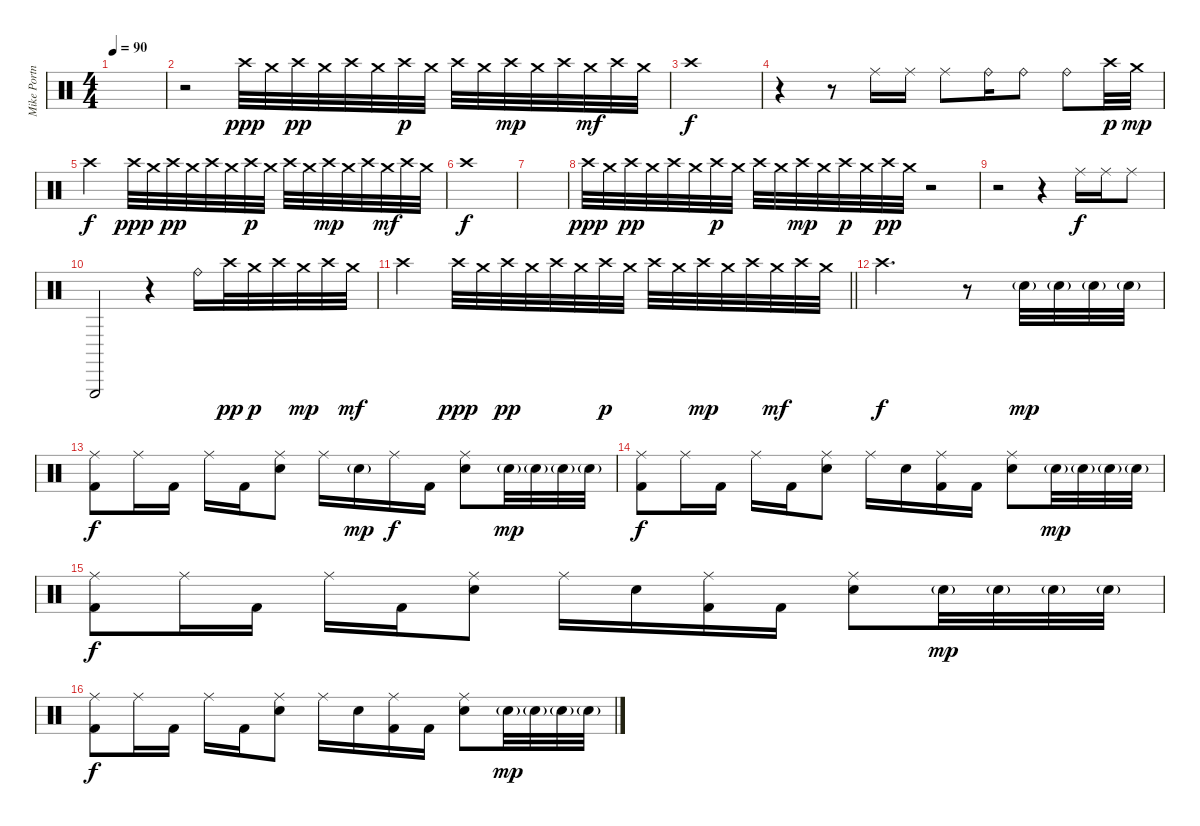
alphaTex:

\track ("Mike Portnoy" "Mike Portn") {instrument percussion}
\staff {score}
\articulation defaults
\ts (4 4)
\tempo 90
\clef neutral
\ks c
|
r.2 "Crash high (hit)".32{dy ppp} "Crash medium (hit)".32 "Crash high (hit)".32{dy pp} "Crash medium (hit)".32 "Crash high (hit)".32 "Crash medium (hit)".32 "Crash high (hit)".32{dy p} "Crash medium (hit)".32 "Crash high (hit)".32 "Crash medium (hit)".32 "Crash high (hit)".32{dy mp} "Crash medium (hit)".32 "Crash high (hit)".32 "Crash medium (hit)".32{dy mf} "Crash high (hit)".32 "Crash medium (hit)".32 |
"Crash high (hit)".1{dy f} |
r.4 r.8 "Ride (middle)".16 "Ride (middle)".16 "Ride (middle)".8 "Ride (bell)".16 "Ride (bell)".8 "Ride (bell)".8 "Crash high (hit)".32{dy p} "Crash medium (hit)".32{dy mp} |
"Crash high (hit)".2{dy f} "Crash high (hit)".32{dy ppp} "Crash medium (hit)".32 "Crash high (hit)".32{dy pp} "Crash medium (hit)".32 "Crash high (hit)".32 "Crash medium (hit)".32 "Crash high (hit)".32{dy p} "Crash medium (hit)".32 "Crash high (hit)".32 "Crash medium (hit)".32 "Crash high (hit)".32{dy mp} "Crash medium (hit)".32 "Crash high (hit)".32 "Crash medium (hit)".32{dy mf} "Crash high (hit)".32 "Crash medium (hit)".32 |
"Crash high (hit)".1{dy f} |
|
"Crash high (hit)".32{dy ppp} "Crash medium (hit)".32 "Crash high (hit)".32{dy pp} "Crash medium (hit)".32 "Crash high (hit)".32 "Crash medium (hit)".32 "Crash high (hit)".32{dy p} "Crash medium (hit)".32 "Crash high (hit)".32 "Crash medium (hit)".32 "Crash high (hit)".32{dy mp} "Crash medium (hit)".32 "Crash high (hit)".32{dy p} "Crash medium (hit)".32 "Crash high (hit)".32{dy pp} "Crash medium (hit)".32 r.2 |
r.2 r.4 "Ride (middle)".16{dy f} "Ride (middle)".16 "Ride (middle)".8 |
"Triangle (hit)".2 r.4 "Ride (bell)".16 "Crash high (hit)".32{dy pp} "Crash medium (hit)".32{dy p} "Crash high (hit)".32 "Crash medium (hit)".32{dy mp} "Crash high (hit)".32 "Crash medium (hit)".32{dy mf} |
\barLineRight lightlight "Crash high (hit)".2 "Crash high (hit)".32{dy ppp} "Crash medium (hit)".32 "Crash high (hit)".32{dy pp} "Crash medium (hit)".32 "Crash high (hit)".32 "Crash medium (hit)".32 "Crash high (hit)".32{dy p} "Crash medium (hit)".32 "Crash high (hit)".32 "Crash medium (hit)".32 "Crash high (hit)".32{dy mp} "Crash medium (hit)".32 "Crash high (hit)".32 "Crash medium (hit)".32{dy mf} "Crash high (hit)".32 "Crash medium (hit)".32
|
"Crash high (hit)".2{d dy f} r.8 "Snare (hit) 2"{g}.32{dy mp} "Snare (hit) 2"{g}.32 "Snare (hit) 2"{g}.32 "Snare (hit) 2"{g}.32 |
("Ride (middle)" "Kick (hit) 2").8{dy f} "Ride (middle)".16 "Kick (hit) 2".16 "Ride (middle)".16 "Kick (hit) 2".16 ("Ride (middle)" "Snare (hit) 2").8 "Ride (middle)".16 "Snare (hit) 2"{g}.16{dy mp} "Ride (middle)".16{dy f} "Kick (hit) 2".16 ("Ride (middle)" "Snare (hit) 2").8 "Snare (hit) 2"{g}.32{dy mp} "Snare (hit) 2"{g}.32 "Snare (hit) 2"{g}.32 "Snare (hit) 2"{g}.32 |
("Ride (middle)" "Kick (hit) 2").8{dy f} "Ride (middle)".16 "Kick (hit) 2".16 "Ride (middle)".16 "Kick (hit) 2".16 ("Ride (middle)" "Snare (hit) 2").8 "Ride (middle)".16 "Snare (hit) 2".16 ("Ride (middle)" "Kick (hit) 2").16 "Kick (hit) 2".16 ("Ride (middle)" "Snare (hit) 2").8 "Snare (hit) 2"{g}.32{dy mp} "Snare (hit) 2"{g}.32 "Snare (hit) 2"{g}.32 "Snare (hit) 2"{g}.32 |
("Ride (middle)" "Kick (hit) 2").8{dy f} "Ride (middle)".16 "Kick (hit) 2".16 "Ride (middle)".16 "Kick (hit) 2".16 ("Ride (middle)" "Snare (hit) 2").8 "Ride (middle)".16 "Snare (hit) 2".16 ("Ride (middle)" "Kick (hit) 2").16 "Kick (hit) 2".16 ("Ride (middle)" "Snare (hit) 2").8 "Snare (hit) 2"{g}.32{dy mp} "Snare (hit) 2"{g}.32 "Snare (hit) 2"{g}.32 "Snare (hit) 2"{g}.32 |
("Ride (middle)" "Kick (hit) 2").8{dy f} "Ride (middle)".16 "Kick (hit) 2".16 "Ride (middle)".16 "Kick (hit) 2".16 ("Ride (middle)" "Snare (hit) 2").8 "Ride (middle)".16 "Snare (hit) 2".16 ("Ride (middle)" "Kick (hit) 2").16 "Kick (hit) 2".16 ("Ride (middle)" "Snare (hit) 2").8 "Snare (hit) 2"{g}.32{dy mp} "Snare (hit) 2"{g}.32 "Snare (hit) 2"{g}.32 "Snare (hit) 2"{g}.32
